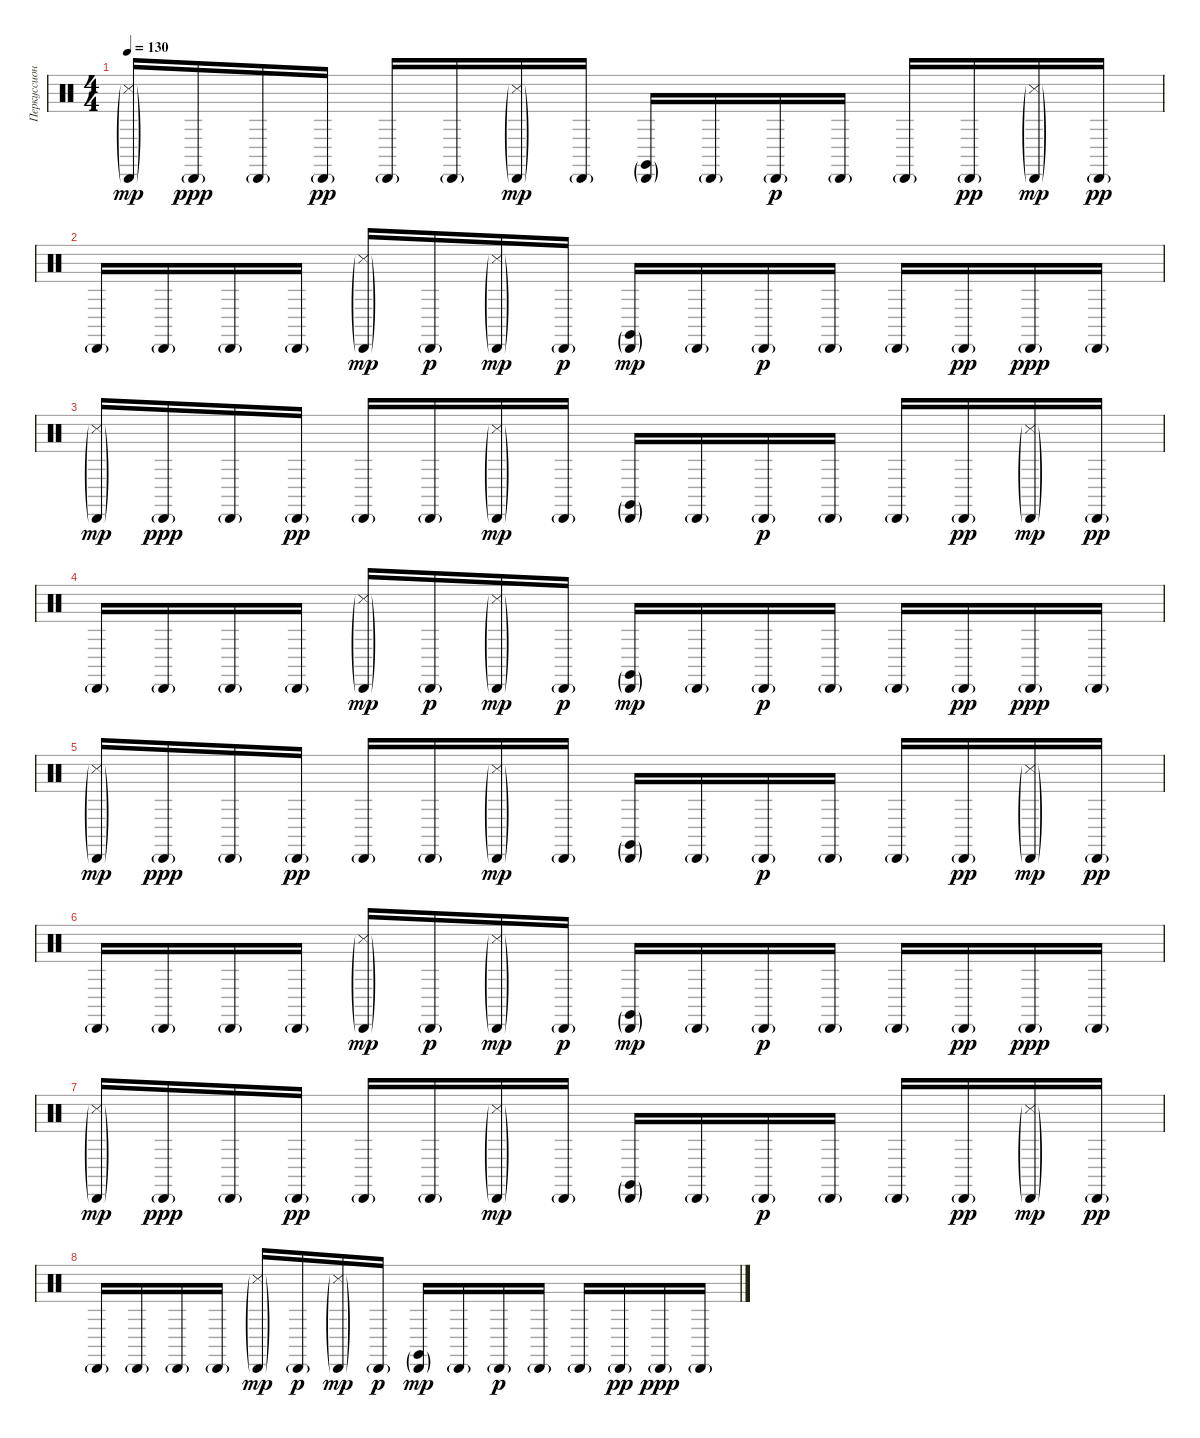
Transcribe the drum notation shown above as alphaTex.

\track ("Перкуссионный Синтез" "Перкуссион") {instrument percussion}
\staff {score}
\articulation defaults
\ts (4 4)
\tempo 130
\clef neutral
\ks c
("Cabasa (hit)"{g} "Metronome (hit)"{g}).16{dy mp} "Cabasa (hit)"{g}.16{dy ppp} "Cabasa (hit)"{g}.16 "Cabasa (hit)"{g}.16{dy pp} "Cabasa (hit)"{g}.16 "Cabasa (hit)"{g}.16 ("Cabasa (hit)"{g} "Metronome (hit)"{g}).16{dy mp} "Cabasa (hit)"{g}.16 ("Cabasa (hit)"{g} "Claves (hit)"{g}).16 "Cabasa (hit)"{g}.16 "Cabasa (hit)"{g}.16{dy p} "Cabasa (hit)"{g}.16 "Cabasa (hit)"{g}.16 "Cabasa (hit)"{g}.16{dy pp} ("Cabasa (hit)"{g} "Metronome (hit)"{g}).16{dy mp} "Cabasa (hit)"{g}.16{dy pp} |
"Cabasa (hit)"{g}.16 "Cabasa (hit)"{g}.16 "Cabasa (hit)"{g}.16 "Cabasa (hit)"{g}.16 ("Cabasa (hit)"{g} "Metronome (hit)"{g}).16{dy mp} "Cabasa (hit)"{g}.16{dy p} ("Cabasa (hit)"{g} "Metronome (hit)"{g}).16{dy mp} "Cabasa (hit)"{g}.16{dy p} ("Cabasa (hit)"{g} "Claves (hit)"{g}).16{dy mp} "Cabasa (hit)"{g}.16 "Cabasa (hit)"{g}.16{dy p} "Cabasa (hit)"{g}.16 "Cabasa (hit)"{g}.16 "Cabasa (hit)"{g}.16{dy pp} "Cabasa (hit)"{g}.16{dy ppp} "Cabasa (hit)"{g}.16 |
("Cabasa (hit)"{g} "Metronome (hit)"{g}).16{dy mp} "Cabasa (hit)"{g}.16{dy ppp} "Cabasa (hit)"{g}.16 "Cabasa (hit)"{g}.16{dy pp} "Cabasa (hit)"{g}.16 "Cabasa (hit)"{g}.16 ("Cabasa (hit)"{g} "Metronome (hit)"{g}).16{dy mp} "Cabasa (hit)"{g}.16 ("Cabasa (hit)"{g} "Claves (hit)"{g}).16 "Cabasa (hit)"{g}.16 "Cabasa (hit)"{g}.16{dy p} "Cabasa (hit)"{g}.16 "Cabasa (hit)"{g}.16 "Cabasa (hit)"{g}.16{dy pp} ("Cabasa (hit)"{g} "Metronome (hit)"{g}).16{dy mp} "Cabasa (hit)"{g}.16{dy pp} |
"Cabasa (hit)"{g}.16 "Cabasa (hit)"{g}.16 "Cabasa (hit)"{g}.16 "Cabasa (hit)"{g}.16 ("Cabasa (hit)"{g} "Metronome (hit)"{g}).16{dy mp} "Cabasa (hit)"{g}.16{dy p} ("Cabasa (hit)"{g} "Metronome (hit)"{g}).16{dy mp} "Cabasa (hit)"{g}.16{dy p} ("Cabasa (hit)"{g} "Claves (hit)"{g}).16{dy mp} "Cabasa (hit)"{g}.16 "Cabasa (hit)"{g}.16{dy p} "Cabasa (hit)"{g}.16 "Cabasa (hit)"{g}.16 "Cabasa (hit)"{g}.16{dy pp} "Cabasa (hit)"{g}.16{dy ppp} "Cabasa (hit)"{g}.16 |
("Cabasa (hit)"{g} "Metronome (hit)"{g}).16{dy mp} "Cabasa (hit)"{g}.16{dy ppp} "Cabasa (hit)"{g}.16 "Cabasa (hit)"{g}.16{dy pp} "Cabasa (hit)"{g}.16 "Cabasa (hit)"{g}.16 ("Cabasa (hit)"{g} "Metronome (hit)"{g}).16{dy mp} "Cabasa (hit)"{g}.16 ("Cabasa (hit)"{g} "Claves (hit)"{g}).16 "Cabasa (hit)"{g}.16 "Cabasa (hit)"{g}.16{dy p} "Cabasa (hit)"{g}.16 "Cabasa (hit)"{g}.16 "Cabasa (hit)"{g}.16{dy pp} ("Cabasa (hit)"{g} "Metronome (hit)"{g}).16{dy mp} "Cabasa (hit)"{g}.16{dy pp} |
"Cabasa (hit)"{g}.16 "Cabasa (hit)"{g}.16 "Cabasa (hit)"{g}.16 "Cabasa (hit)"{g}.16 ("Cabasa (hit)"{g} "Metronome (hit)"{g}).16{dy mp} "Cabasa (hit)"{g}.16{dy p} ("Cabasa (hit)"{g} "Metronome (hit)"{g}).16{dy mp} "Cabasa (hit)"{g}.16{dy p} ("Cabasa (hit)"{g} "Claves (hit)"{g}).16{dy mp} "Cabasa (hit)"{g}.16 "Cabasa (hit)"{g}.16{dy p} "Cabasa (hit)"{g}.16 "Cabasa (hit)"{g}.16 "Cabasa (hit)"{g}.16{dy pp} "Cabasa (hit)"{g}.16{dy ppp} "Cabasa (hit)"{g}.16 |
("Cabasa (hit)"{g} "Metronome (hit)"{g}).16{dy mp} "Cabasa (hit)"{g}.16{dy ppp} "Cabasa (hit)"{g}.16 "Cabasa (hit)"{g}.16{dy pp} "Cabasa (hit)"{g}.16 "Cabasa (hit)"{g}.16 ("Cabasa (hit)"{g} "Metronome (hit)"{g}).16{dy mp} "Cabasa (hit)"{g}.16 ("Cabasa (hit)"{g} "Claves (hit)"{g}).16 "Cabasa (hit)"{g}.16 "Cabasa (hit)"{g}.16{dy p} "Cabasa (hit)"{g}.16 "Cabasa (hit)"{g}.16 "Cabasa (hit)"{g}.16{dy pp} ("Cabasa (hit)"{g} "Metronome (hit)"{g}).16{dy mp} "Cabasa (hit)"{g}.16{dy pp} |
"Cabasa (hit)"{g}.16 "Cabasa (hit)"{g}.16 "Cabasa (hit)"{g}.16 "Cabasa (hit)"{g}.16 ("Cabasa (hit)"{g} "Metronome (hit)"{g}).16{dy mp} "Cabasa (hit)"{g}.16{dy p} ("Cabasa (hit)"{g} "Metronome (hit)"{g}).16{dy mp} "Cabasa (hit)"{g}.16{dy p} ("Cabasa (hit)"{g} "Claves (hit)"{g}).16{dy mp} "Cabasa (hit)"{g}.16 "Cabasa (hit)"{g}.16{dy p} "Cabasa (hit)"{g}.16 "Cabasa (hit)"{g}.16 "Cabasa (hit)"{g}.16{dy pp} "Cabasa (hit)"{g}.16{dy ppp} "Cabasa (hit)"{g}.16
